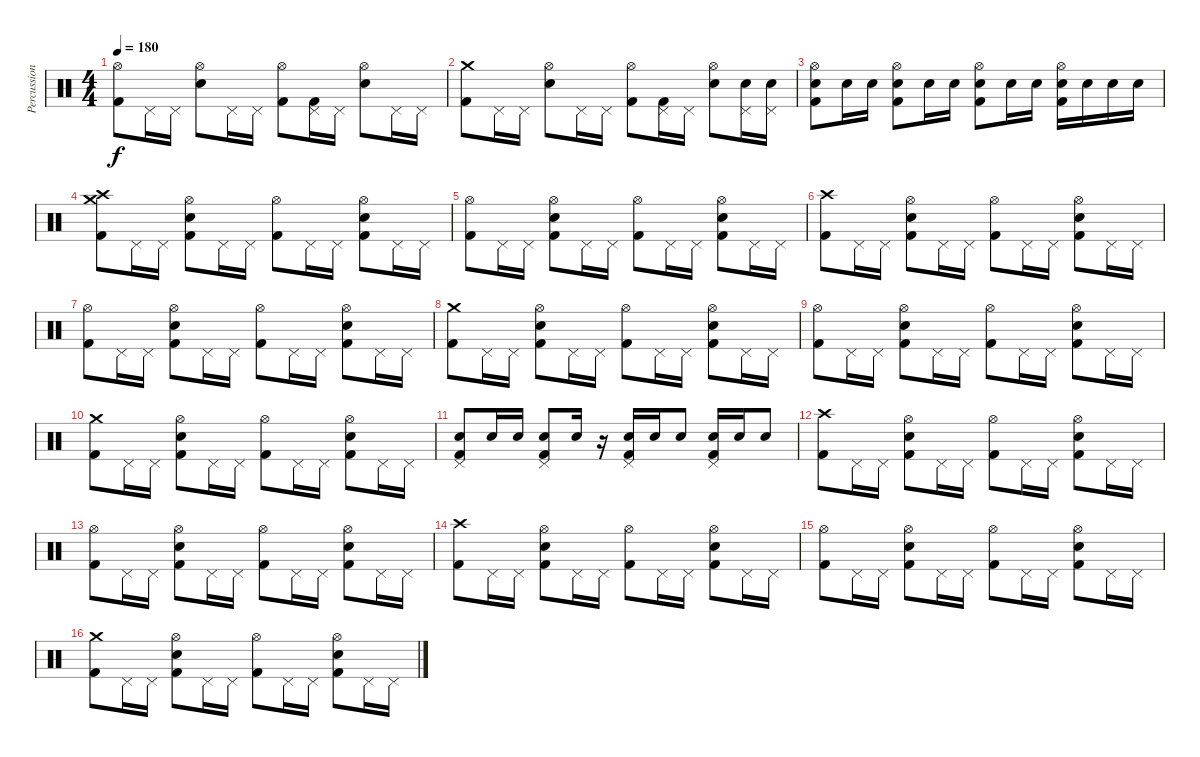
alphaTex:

\track ("Percussion" "Percussion") {instrument percussion}
\staff {score}
\articulation defaults
\ts (4 4)
\tempo 180
\clef neutral
\ks c
("Hi-Hat (open)" "Kick (hit) 2").8{dy f} "Pedal Hi-Hat (hit)".16 "Pedal Hi-Hat (hit)".16 ("Hi-Hat (open)" "Electric Snare (hit)").8 "Pedal Hi-Hat (hit)".16 "Pedal Hi-Hat (hit)".16 ("Hi-Hat (open)" "Kick (hit) 2").8 ("Pedal Hi-Hat (hit)" "Kick (hit) 2").16 "Pedal Hi-Hat (hit)".16 ("Hi-Hat (open)" "Electric Snare (hit)").8 "Pedal Hi-Hat (hit)".16 "Pedal Hi-Hat (hit)".16 |
("Crash medium (hit)" "Kick (hit) 2").8 "Pedal Hi-Hat (hit)".16 "Pedal Hi-Hat (hit)".16 ("Hi-Hat (open)" "Electric Snare (hit)").8 "Pedal Hi-Hat (hit)".16 "Pedal Hi-Hat (hit)".16 ("Hi-Hat (open)" "Kick (hit) 2").8 ("Pedal Hi-Hat (hit)" "Kick (hit) 2").16 "Pedal Hi-Hat (hit)".16 ("Hi-Hat (open)" "Electric Snare (hit)").8 ("Pedal Hi-Hat (hit)" "Electric Snare (hit)").16 ("Pedal Hi-Hat (hit)" "Electric Snare (hit)").16 |
("Hi-Hat (open)" "Electric Snare (hit)" "Kick (hit) 2").8 "Electric Snare (hit)".16 "Electric Snare (hit)".16 ("Hi-Hat (open)" "Electric Snare (hit)" "Kick (hit) 2").8 "Electric Snare (hit)".16 "Electric Snare (hit)".16 ("Hi-Hat (open)" "Electric Snare (hit)" "Kick (hit) 2").8 "Electric Snare (hit)".16 "Electric Snare (hit)".16 ("Hi-Hat (open)" "Electric Snare (hit)" "Kick (hit) 2").16 "Electric Snare (hit)".16 "Electric Snare (hit)".16 "Electric Snare (hit)".16 |
("Crash high (hit)" "Crash medium (hit)" "Kick (hit) 2").8 "Pedal Hi-Hat (hit)".16 "Pedal Hi-Hat (hit)".16 ("Hi-Hat (open)" "Electric Snare (hit)" "Kick (hit) 2").8 "Pedal Hi-Hat (hit)".16 "Pedal Hi-Hat (hit)".16 ("Hi-Hat (open)" "Kick (hit) 2").8 "Pedal Hi-Hat (hit)".16 "Pedal Hi-Hat (hit)".16 ("Hi-Hat (open)" "Electric Snare (hit)" "Kick (hit) 2").8 "Pedal Hi-Hat (hit)".16 "Pedal Hi-Hat (hit)".16 |
("Hi-Hat (open)" "Kick (hit) 2").8 "Pedal Hi-Hat (hit)".16 "Pedal Hi-Hat (hit)".16 ("Hi-Hat (open)" "Electric Snare (hit)" "Kick (hit) 2").8 "Pedal Hi-Hat (hit)".16 "Pedal Hi-Hat (hit)".16 ("Hi-Hat (open)" "Kick (hit) 2").8 "Pedal Hi-Hat (hit)".16 "Pedal Hi-Hat (hit)".16 ("Hi-Hat (open)" "Electric Snare (hit)" "Kick (hit) 2").8 "Pedal Hi-Hat (hit)".16 "Pedal Hi-Hat (hit)".16 |
("Crash high (hit)" "Kick (hit) 2").8 "Pedal Hi-Hat (hit)".16 "Pedal Hi-Hat (hit)".16 ("Hi-Hat (open)" "Electric Snare (hit)" "Kick (hit) 2").8 "Pedal Hi-Hat (hit)".16 "Pedal Hi-Hat (hit)".16 ("Hi-Hat (open)" "Kick (hit) 2").8 "Pedal Hi-Hat (hit)".16 "Pedal Hi-Hat (hit)".16 ("Hi-Hat (open)" "Electric Snare (hit)" "Kick (hit) 2").8 "Pedal Hi-Hat (hit)".16 "Pedal Hi-Hat (hit)".16 |
("Hi-Hat (open)" "Kick (hit) 2").8 "Pedal Hi-Hat (hit)".16 "Pedal Hi-Hat (hit)".16 ("Hi-Hat (open)" "Electric Snare (hit)" "Kick (hit) 2").8 "Pedal Hi-Hat (hit)".16 "Pedal Hi-Hat (hit)".16 ("Hi-Hat (open)" "Kick (hit) 2").8 "Pedal Hi-Hat (hit)".16 "Pedal Hi-Hat (hit)".16 ("Hi-Hat (open)" "Electric Snare (hit)" "Kick (hit) 2").8 "Pedal Hi-Hat (hit)".16 "Pedal Hi-Hat (hit)".16 |
("Crash medium (hit)" "Kick (hit) 2").8 "Pedal Hi-Hat (hit)".16 "Pedal Hi-Hat (hit)".16 ("Hi-Hat (open)" "Electric Snare (hit)" "Kick (hit) 2").8 "Pedal Hi-Hat (hit)".16 "Pedal Hi-Hat (hit)".16 ("Hi-Hat (open)" "Kick (hit) 2").8 "Pedal Hi-Hat (hit)".16 "Pedal Hi-Hat (hit)".16 ("Hi-Hat (open)" "Electric Snare (hit)" "Kick (hit) 2").8 "Pedal Hi-Hat (hit)".16 "Pedal Hi-Hat (hit)".16 |
("Hi-Hat (open)" "Kick (hit) 2").8 "Pedal Hi-Hat (hit)".16 "Pedal Hi-Hat (hit)".16 ("Hi-Hat (open)" "Electric Snare (hit)" "Kick (hit) 2").8 "Pedal Hi-Hat (hit)".16 "Pedal Hi-Hat (hit)".16 ("Hi-Hat (open)" "Kick (hit) 2").8 "Pedal Hi-Hat (hit)".16 "Pedal Hi-Hat (hit)".16 ("Hi-Hat (open)" "Electric Snare (hit)" "Kick (hit) 2").8 "Pedal Hi-Hat (hit)".16 "Pedal Hi-Hat (hit)".16 |
("Crash medium (hit)" "Kick (hit) 2").8 "Pedal Hi-Hat (hit)".16 "Pedal Hi-Hat (hit)".16 ("Hi-Hat (open)" "Electric Snare (hit)" "Kick (hit) 2").8 "Pedal Hi-Hat (hit)".16 "Pedal Hi-Hat (hit)".16 ("Hi-Hat (open)" "Kick (hit) 2").8 "Pedal Hi-Hat (hit)".16 "Pedal Hi-Hat (hit)".16 ("Hi-Hat (open)" "Electric Snare (hit)" "Kick (hit) 2").8 "Pedal Hi-Hat (hit)".16 "Pedal Hi-Hat (hit)".16 |
("Pedal Hi-Hat (hit)" "Electric Snare (hit)" "Kick (hit) 2").8 "Electric Snare (hit)".16 "Electric Snare (hit)".16 ("Pedal Hi-Hat (hit)" "Electric Snare (hit)" "Kick (hit) 2").8 "Electric Snare (hit)".16 r.16 ("Pedal Hi-Hat (hit)" "Electric Snare (hit)" "Kick (hit) 2").16 "Electric Snare (hit)".16 "Electric Snare (hit)".8 ("Pedal Hi-Hat (hit)" "Electric Snare (hit)" "Kick (hit) 2").16 "Electric Snare (hit)".16 "Electric Snare (hit)".8 |
("Crash high (hit)" "Kick (hit) 2").8 "Pedal Hi-Hat (hit)".16 "Pedal Hi-Hat (hit)".16 ("Hi-Hat (open)" "Electric Snare (hit)" "Kick (hit) 2").8 "Pedal Hi-Hat (hit)".16 "Pedal Hi-Hat (hit)".16 ("Hi-Hat (open)" "Kick (hit) 2").8 "Pedal Hi-Hat (hit)".16 "Pedal Hi-Hat (hit)".16 ("Hi-Hat (open)" "Electric Snare (hit)" "Kick (hit) 2").8 "Pedal Hi-Hat (hit)".16 "Pedal Hi-Hat (hit)".16 |
("Hi-Hat (open)" "Kick (hit) 2").8 "Pedal Hi-Hat (hit)".16 "Pedal Hi-Hat (hit)".16 ("Hi-Hat (open)" "Electric Snare (hit)" "Kick (hit) 2").8 "Pedal Hi-Hat (hit)".16 "Pedal Hi-Hat (hit)".16 ("Hi-Hat (open)" "Kick (hit) 2").8 "Pedal Hi-Hat (hit)".16 "Pedal Hi-Hat (hit)".16 ("Hi-Hat (open)" "Electric Snare (hit)" "Kick (hit) 2").8 "Pedal Hi-Hat (hit)".16 "Pedal Hi-Hat (hit)".16 |
("Crash high (hit)" "Kick (hit) 2").8 "Pedal Hi-Hat (hit)".16 "Pedal Hi-Hat (hit)".16 ("Hi-Hat (open)" "Electric Snare (hit)" "Kick (hit) 2").8 "Pedal Hi-Hat (hit)".16 "Pedal Hi-Hat (hit)".16 ("Hi-Hat (open)" "Kick (hit) 2").8 "Pedal Hi-Hat (hit)".16 "Pedal Hi-Hat (hit)".16 ("Hi-Hat (open)" "Electric Snare (hit)" "Kick (hit) 2").8 "Pedal Hi-Hat (hit)".16 "Pedal Hi-Hat (hit)".16 |
("Hi-Hat (open)" "Kick (hit) 2").8 "Pedal Hi-Hat (hit)".16 "Pedal Hi-Hat (hit)".16 ("Hi-Hat (open)" "Electric Snare (hit)" "Kick (hit) 2").8 "Pedal Hi-Hat (hit)".16 "Pedal Hi-Hat (hit)".16 ("Hi-Hat (open)" "Kick (hit) 2").8 "Pedal Hi-Hat (hit)".16 "Pedal Hi-Hat (hit)".16 ("Hi-Hat (open)" "Electric Snare (hit)" "Kick (hit) 2").8 "Pedal Hi-Hat (hit)".16 "Pedal Hi-Hat (hit)".16 |
("Crash medium (hit)" "Kick (hit) 2").8 "Pedal Hi-Hat (hit)".16 "Pedal Hi-Hat (hit)".16 ("Hi-Hat (open)" "Electric Snare (hit)" "Kick (hit) 2").8 "Pedal Hi-Hat (hit)".16 "Pedal Hi-Hat (hit)".16 ("Hi-Hat (open)" "Kick (hit) 2").8 "Pedal Hi-Hat (hit)".16 "Pedal Hi-Hat (hit)".16 ("Hi-Hat (open)" "Electric Snare (hit)" "Kick (hit) 2").8 "Pedal Hi-Hat (hit)".16 "Pedal Hi-Hat (hit)".16
